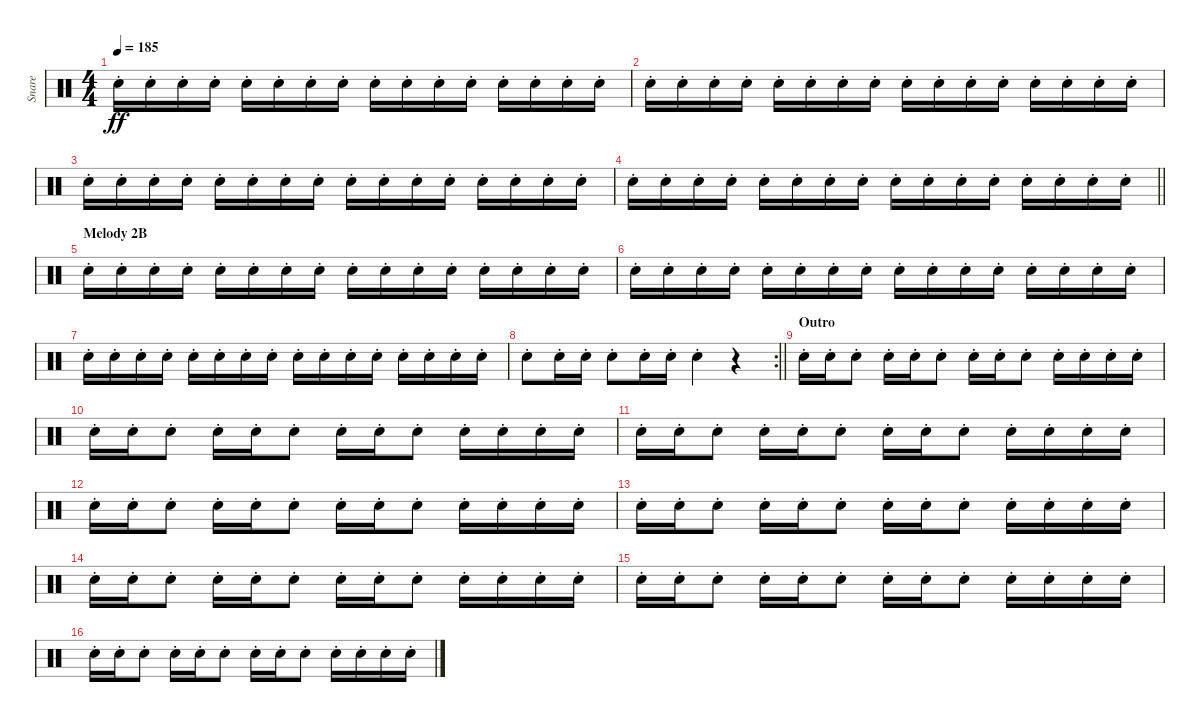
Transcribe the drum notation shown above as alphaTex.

\track ("Snare" "Snare") {instrument percussion}
\staff {score}
\articulation defaults
\ts (4 4)
\tempo 185
\clef neutral
\ks c "Electric Snare (hit)"{st}.16{dy ff} "Electric Snare (hit)"{st}.16 "Electric Snare (hit)"{st}.16 "Electric Snare (hit)"{st}.16 "Electric Snare (hit)"{st}.16 "Electric Snare (hit)"{st}.16 "Electric Snare (hit)"{st}.16 "Electric Snare (hit)"{st}.16 "Electric Snare (hit)"{st}.16 "Electric Snare (hit)"{st}.16 "Electric Snare (hit)"{st}.16 "Electric Snare (hit)"{st}.16 "Electric Snare (hit)"{st}.16 "Electric Snare (hit)"{st}.16 "Electric Snare (hit)"{st}.16 "Electric Snare (hit)"{st}.16
|
"Electric Snare (hit)"{st}.16 "Electric Snare (hit)"{st}.16 "Electric Snare (hit)"{st}.16 "Electric Snare (hit)"{st}.16 "Electric Snare (hit)"{st}.16 "Electric Snare (hit)"{st}.16 "Electric Snare (hit)"{st}.16 "Electric Snare (hit)"{st}.16 "Electric Snare (hit)"{st}.16 "Electric Snare (hit)"{st}.16 "Electric Snare (hit)"{st}.16 "Electric Snare (hit)"{st}.16 "Electric Snare (hit)"{st}.16 "Electric Snare (hit)"{st}.16 "Electric Snare (hit)"{st}.16 "Electric Snare (hit)"{st}.16 |
"Electric Snare (hit)"{st}.16 "Electric Snare (hit)"{st}.16 "Electric Snare (hit)"{st}.16 "Electric Snare (hit)"{st}.16 "Electric Snare (hit)"{st}.16 "Electric Snare (hit)"{st}.16 "Electric Snare (hit)"{st}.16 "Electric Snare (hit)"{st}.16 "Electric Snare (hit)"{st}.16 "Electric Snare (hit)"{st}.16 "Electric Snare (hit)"{st}.16 "Electric Snare (hit)"{st}.16 "Electric Snare (hit)"{st}.16 "Electric Snare (hit)"{st}.16 "Electric Snare (hit)"{st}.16 "Electric Snare (hit)"{st}.16 |
\barLineRight lightlight "Electric Snare (hit)"{st}.16 "Electric Snare (hit)"{st}.16 "Electric Snare (hit)"{st}.16 "Electric Snare (hit)"{st}.16 "Electric Snare (hit)"{st}.16 "Electric Snare (hit)"{st}.16 "Electric Snare (hit)"{st}.16 "Electric Snare (hit)"{st}.16 "Electric Snare (hit)"{st}.16 "Electric Snare (hit)"{st}.16 "Electric Snare (hit)"{st}.16 "Electric Snare (hit)"{st}.16 "Electric Snare (hit)"{st}.16 "Electric Snare (hit)"{st}.16 "Electric Snare (hit)"{st}.16 "Electric Snare (hit)"{st}.16
|
\section ("" "Melody 2B")
"Electric Snare (hit)"{st}.16 "Electric Snare (hit)"{st}.16 "Electric Snare (hit)"{st}.16 "Electric Snare (hit)"{st}.16 "Electric Snare (hit)"{st}.16 "Electric Snare (hit)"{st}.16 "Electric Snare (hit)"{st}.16 "Electric Snare (hit)"{st}.16 "Electric Snare (hit)"{st}.16 "Electric Snare (hit)"{st}.16 "Electric Snare (hit)"{st}.16 "Electric Snare (hit)"{st}.16 "Electric Snare (hit)"{st}.16 "Electric Snare (hit)"{st}.16 "Electric Snare (hit)"{st}.16 "Electric Snare (hit)"{st}.16 |
"Electric Snare (hit)"{st}.16 "Electric Snare (hit)"{st}.16 "Electric Snare (hit)"{st}.16 "Electric Snare (hit)"{st}.16 "Electric Snare (hit)"{st}.16 "Electric Snare (hit)"{st}.16 "Electric Snare (hit)"{st}.16 "Electric Snare (hit)"{st}.16 "Electric Snare (hit)"{st}.16 "Electric Snare (hit)"{st}.16 "Electric Snare (hit)"{st}.16 "Electric Snare (hit)"{st}.16 "Electric Snare (hit)"{st}.16 "Electric Snare (hit)"{st}.16 "Electric Snare (hit)"{st}.16 "Electric Snare (hit)"{st}.16 |
"Electric Snare (hit)"{st}.16 "Electric Snare (hit)"{st}.16 "Electric Snare (hit)"{st}.16 "Electric Snare (hit)"{st}.16 "Electric Snare (hit)"{st}.16 "Electric Snare (hit)"{st}.16 "Electric Snare (hit)"{st}.16 "Electric Snare (hit)"{st}.16 "Electric Snare (hit)"{st}.16 "Electric Snare (hit)"{st}.16 "Electric Snare (hit)"{st}.16 "Electric Snare (hit)"{st}.16 "Electric Snare (hit)"{st}.16 "Electric Snare (hit)"{st}.16 "Electric Snare (hit)"{st}.16 "Electric Snare (hit)"{st}.16 |
\rc 2
\barLineRight lightlight "Electric Snare (hit)"{st}.8 "Electric Snare (hit)"{st}.16 "Electric Snare (hit)"{st}.16 "Electric Snare (hit)"{st}.8 "Electric Snare (hit)"{st}.16 "Electric Snare (hit)"{st}.16 "Electric Snare (hit)"{st}.4
r.4 |
\section ("" "Outro")
"Electric Snare (hit)"{st}.16 "Electric Snare (hit)"{st}.16 "Electric Snare (hit)"{st}.8 "Electric Snare (hit)"{st}.16 "Electric Snare (hit)"{st}.16 "Electric Snare (hit)"{st}.8 "Electric Snare (hit)"{st}.16 "Electric Snare (hit)"{st}.16 "Electric Snare (hit)"{st}.8 "Electric Snare (hit)"{st}.16 "Electric Snare (hit)"{st}.16 "Electric Snare (hit)"{st}.16 "Electric Snare (hit)"{st}.16 |
"Electric Snare (hit)"{st}.16 "Electric Snare (hit)"{st}.16 "Electric Snare (hit)"{st}.8 "Electric Snare (hit)"{st}.16 "Electric Snare (hit)"{st}.16 "Electric Snare (hit)"{st}.8 "Electric Snare (hit)"{st}.16 "Electric Snare (hit)"{st}.16 "Electric Snare (hit)"{st}.8 "Electric Snare (hit)"{st}.16 "Electric Snare (hit)"{st}.16 "Electric Snare (hit)"{st}.16 "Electric Snare (hit)"{st}.16 |
"Electric Snare (hit)"{st}.16 "Electric Snare (hit)"{st}.16 "Electric Snare (hit)"{st}.8 "Electric Snare (hit)"{st}.16 "Electric Snare (hit)"{st}.16 "Electric Snare (hit)"{st}.8 "Electric Snare (hit)"{st}.16 "Electric Snare (hit)"{st}.16 "Electric Snare (hit)"{st}.8 "Electric Snare (hit)"{st}.16 "Electric Snare (hit)"{st}.16 "Electric Snare (hit)"{st}.16 "Electric Snare (hit)"{st}.16 |
"Electric Snare (hit)"{st}.16 "Electric Snare (hit)"{st}.16 "Electric Snare (hit)"{st}.8 "Electric Snare (hit)"{st}.16 "Electric Snare (hit)"{st}.16 "Electric Snare (hit)"{st}.8 "Electric Snare (hit)"{st}.16 "Electric Snare (hit)"{st}.16 "Electric Snare (hit)"{st}.8 "Electric Snare (hit)"{st}.16 "Electric Snare (hit)"{st}.16 "Electric Snare (hit)"{st}.16 "Electric Snare (hit)"{st}.16 |
"Electric Snare (hit)"{st}.16 "Electric Snare (hit)"{st}.16 "Electric Snare (hit)"{st}.8 "Electric Snare (hit)"{st}.16 "Electric Snare (hit)"{st}.16 "Electric Snare (hit)"{st}.8 "Electric Snare (hit)"{st}.16 "Electric Snare (hit)"{st}.16 "Electric Snare (hit)"{st}.8 "Electric Snare (hit)"{st}.16 "Electric Snare (hit)"{st}.16 "Electric Snare (hit)"{st}.16 "Electric Snare (hit)"{st}.16 |
"Electric Snare (hit)"{st}.16 "Electric Snare (hit)"{st}.16 "Electric Snare (hit)"{st}.8 "Electric Snare (hit)"{st}.16 "Electric Snare (hit)"{st}.16 "Electric Snare (hit)"{st}.8 "Electric Snare (hit)"{st}.16 "Electric Snare (hit)"{st}.16 "Electric Snare (hit)"{st}.8 "Electric Snare (hit)"{st}.16 "Electric Snare (hit)"{st}.16 "Electric Snare (hit)"{st}.16 "Electric Snare (hit)"{st}.16 |
"Electric Snare (hit)"{st}.16 "Electric Snare (hit)"{st}.16 "Electric Snare (hit)"{st}.8 "Electric Snare (hit)"{st}.16 "Electric Snare (hit)"{st}.16 "Electric Snare (hit)"{st}.8 "Electric Snare (hit)"{st}.16 "Electric Snare (hit)"{st}.16 "Electric Snare (hit)"{st}.8 "Electric Snare (hit)"{st}.16 "Electric Snare (hit)"{st}.16 "Electric Snare (hit)"{st}.16 "Electric Snare (hit)"{st}.16 |
"Electric Snare (hit)"{st}.16 "Electric Snare (hit)"{st}.16 "Electric Snare (hit)"{st}.8 "Electric Snare (hit)"{st}.16 "Electric Snare (hit)"{st}.16 "Electric Snare (hit)"{st}.8 "Electric Snare (hit)"{st}.16 "Electric Snare (hit)"{st}.16 "Electric Snare (hit)"{st}.8 "Electric Snare (hit)"{st}.16 "Electric Snare (hit)"{st}.16 "Electric Snare (hit)"{st}.16 "Electric Snare (hit)"{st}.16
